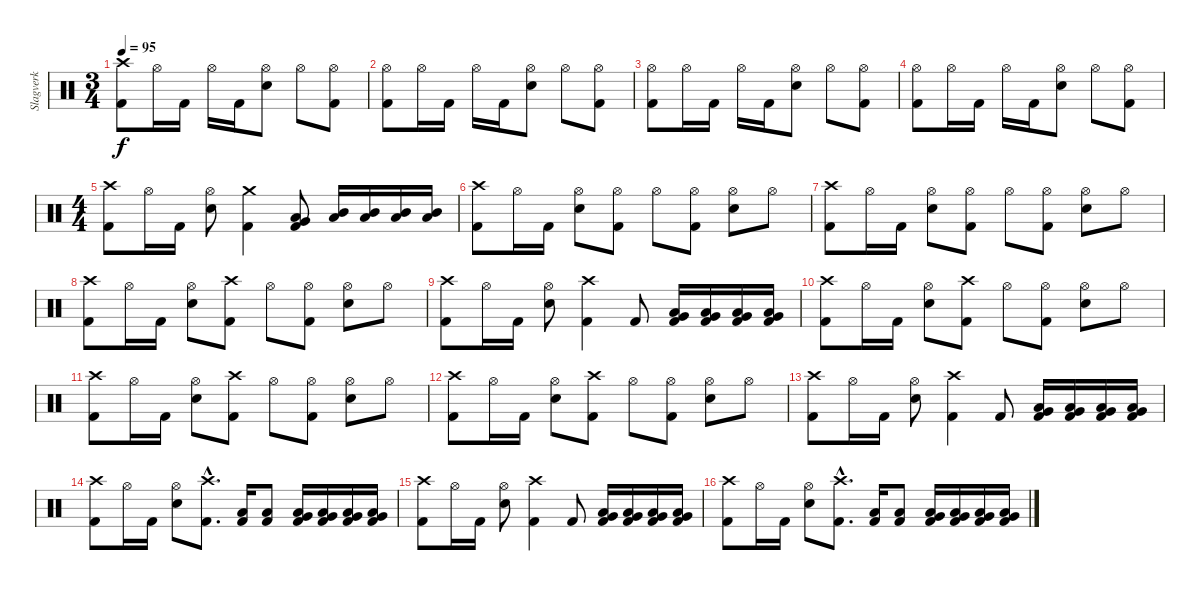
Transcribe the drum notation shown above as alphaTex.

\track ("Slagverk" "Slagverk") {instrument percussion}
\staff {score}
\articulation defaults
\ts (3 4)
\tempo 95
\clef neutral
\ks c
("Crash high (hit)" "Kick (hit) 2").8{dy f} "Hi-Hat (open)".16 "Kick (hit) 2".16 "Hi-Hat (open)".16 "Kick (hit) 2".16 ("Hi-Hat (open)" "Electric Snare (hit)").8 "Hi-Hat (open)".8 ("Hi-Hat (open)" "Kick (hit) 2").8 |
("Hi-Hat (open)" "Kick (hit) 2").8 "Hi-Hat (open)".16 "Kick (hit) 2".16 "Hi-Hat (open)".16 "Kick (hit) 2".16 ("Hi-Hat (open)" "Electric Snare (hit)").8 "Hi-Hat (open)".8 ("Hi-Hat (open)" "Kick (hit) 2").8 |
("Hi-Hat (open)" "Kick (hit) 2").8 "Hi-Hat (open)".16 "Kick (hit) 2".16 "Hi-Hat (open)".16 "Kick (hit) 2".16 ("Hi-Hat (open)" "Electric Snare (hit)").8 "Hi-Hat (open)".8 ("Hi-Hat (open)" "Kick (hit) 2").8 |
("Hi-Hat (open)" "Kick (hit) 2").8 "Hi-Hat (open)".16 "Kick (hit) 2".16 "Hi-Hat (open)".16 "Kick (hit) 2".16 ("Hi-Hat (open)" "Electric Snare (hit)").8 "Hi-Hat (open)".8 ("Hi-Hat (open)" "Kick (hit) 2").8 |
\ts (4 4)
("Crash high (hit)" "Kick (hit) 2").8 "Hi-Hat (open)".16 "Kick (hit) 2".16 ("Hi-Hat (open)" "Electric Snare (hit)").8 ("Crash medium (hit)" "Kick (hit) 2").4 ("Low Tom (hit)" "Very Low Tom (hit)" "Kick (hit) 2").8 ("Mid Tom (hit)" "Low Tom (hit)").16 ("Mid Tom (hit)" "Low Tom (hit)").16 ("Mid Tom (hit)" "Low Tom (hit)").16 ("Mid Tom (hit)" "Low Tom (hit)").16 |
("Crash high (hit)" "Kick (hit) 2").8 "Hi-Hat (open)".16 "Kick (hit) 2".16 ("Electric Snare (hit)" "Hi-Hat (open)").8 ("Hi-Hat (open)" "Kick (hit) 2").8 "Hi-Hat (open)".8 ("Hi-Hat (open)" "Kick (hit) 2").8 ("Electric Snare (hit)" "Hi-Hat (open)").8 "Hi-Hat (open)".8 |
("Crash high (hit)" "Kick (hit) 2").8 "Hi-Hat (open)".16 "Kick (hit) 2".16 ("Electric Snare (hit)" "Hi-Hat (open)").8 ("Hi-Hat (open)" "Kick (hit) 2").8 "Hi-Hat (open)".8 ("Hi-Hat (open)" "Kick (hit) 2").8 ("Electric Snare (hit)" "Hi-Hat (open)").8 "Hi-Hat (open)".8 |
("Crash high (hit)" "Kick (hit) 2").8 "Hi-Hat (open)".16 "Kick (hit) 2".16 ("Electric Snare (hit)" "Hi-Hat (open)").8 ("Crash high (hit)" "Kick (hit) 2").8 "Hi-Hat (open)".8 ("Hi-Hat (open)" "Kick (hit) 2").8 ("Electric Snare (hit)" "Hi-Hat (open)").8 "Hi-Hat (open)".8 |
("Crash high (hit)" "Kick (hit) 2").8 "Hi-Hat (open)".16 "Kick (hit) 2".16 ("Electric Snare (hit)" "Hi-Hat (open)").8 ("Crash high (hit)" "Kick (hit) 2").4 "Kick (hit) 2".8 ("Low Tom (hit)" "Very Low Tom (hit)" "Kick (hit) 2").16 ("Low Tom (hit)" "Very Low Tom (hit)" "Kick (hit) 2").16 ("Low Tom (hit)" "Very Low Tom (hit)" "Kick (hit) 2").16 ("Low Tom (hit)" "Very Low Tom (hit)" "Kick (hit) 2").16 |
("Crash high (hit)" "Kick (hit) 2").8 "Hi-Hat (open)".16 "Kick (hit) 2".16 ("Electric Snare (hit)" "Hi-Hat (open)").8 ("Crash high (hit)" "Kick (hit) 2").8 "Hi-Hat (open)".8 ("Hi-Hat (open)" "Kick (hit) 2").8 ("Electric Snare (hit)" "Hi-Hat (open)").8 "Hi-Hat (open)".8 |
("Crash high (hit)" "Kick (hit) 2").8 "Hi-Hat (open)".16 "Kick (hit) 2".16 ("Electric Snare (hit)" "Hi-Hat (open)").8 ("Crash high (hit)" "Kick (hit) 2").8 "Hi-Hat (open)".8 ("Hi-Hat (open)" "Kick (hit) 2").8 ("Electric Snare (hit)" "Hi-Hat (open)").8 "Hi-Hat (open)".8 |
("Crash high (hit)" "Kick (hit) 2").8 "Hi-Hat (open)".16 "Kick (hit) 2".16 ("Electric Snare (hit)" "Hi-Hat (open)").8 ("Crash high (hit)" "Kick (hit) 2").8 "Hi-Hat (open)".8 ("Hi-Hat (open)" "Kick (hit) 2").8 ("Electric Snare (hit)" "Hi-Hat (open)").8 "Hi-Hat (open)".8 |
("Crash high (hit)" "Kick (hit) 2").8 "Hi-Hat (open)".16 "Kick (hit) 2".16 ("Electric Snare (hit)" "Hi-Hat (open)").8 ("Crash high (hit)" "Kick (hit) 2").4 "Kick (hit) 2".8 ("Low Tom (hit)" "Very Low Tom (hit)" "Kick (hit) 2").16 ("Low Tom (hit)" "Very Low Tom (hit)" "Kick (hit) 2").16 ("Low Tom (hit)" "Very Low Tom (hit)" "Kick (hit) 2").16 ("Low Tom (hit)" "Very Low Tom (hit)" "Kick (hit) 2").16 |
("Crash high (hit)" "Kick (hit) 2").8 "Hi-Hat (open)".16 "Kick (hit) 2".16 ("Electric Snare (hit)" "Hi-Hat (open)").8 ("Crash high (hit)"{hac} "Kick (hit) 2"{hac}).8{d} ("Low Tom (hit)" "Kick (hit) 2").16 ("Low Tom (hit)" "Kick (hit) 2").8 ("Low Tom (hit)" "Very Low Tom (hit)" "Kick (hit) 2").16 ("Low Tom (hit)" "Very Low Tom (hit)" "Kick (hit) 2").16 ("Low Tom (hit)" "Very Low Tom (hit)" "Kick (hit) 2").16 ("Low Tom (hit)" "Very Low Tom (hit)" "Kick (hit) 2").16 |
("Crash high (hit)" "Kick (hit) 2").8 "Hi-Hat (open)".16 "Kick (hit) 2".16 ("Electric Snare (hit)" "Hi-Hat (open)").8 ("Crash high (hit)" "Kick (hit) 2").4 "Kick (hit) 2".8 ("Low Tom (hit)" "Very Low Tom (hit)" "Kick (hit) 2").16 ("Low Tom (hit)" "Very Low Tom (hit)" "Kick (hit) 2").16 ("Low Tom (hit)" "Very Low Tom (hit)" "Kick (hit) 2").16 ("Low Tom (hit)" "Very Low Tom (hit)" "Kick (hit) 2").16 |
("Crash high (hit)" "Kick (hit) 2").8 "Hi-Hat (open)".16 "Kick (hit) 2".16 ("Electric Snare (hit)" "Hi-Hat (open)").8 ("Crash high (hit)"{hac} "Kick (hit) 2"{hac}).8{d} ("Low Tom (hit)" "Kick (hit) 2").16 ("Low Tom (hit)" "Kick (hit) 2").8 ("Low Tom (hit)" "Very Low Tom (hit)" "Kick (hit) 2").16 ("Low Tom (hit)" "Very Low Tom (hit)" "Kick (hit) 2").16 ("Low Tom (hit)" "Very Low Tom (hit)" "Kick (hit) 2").16 ("Low Tom (hit)" "Very Low Tom (hit)" "Kick (hit) 2").16
